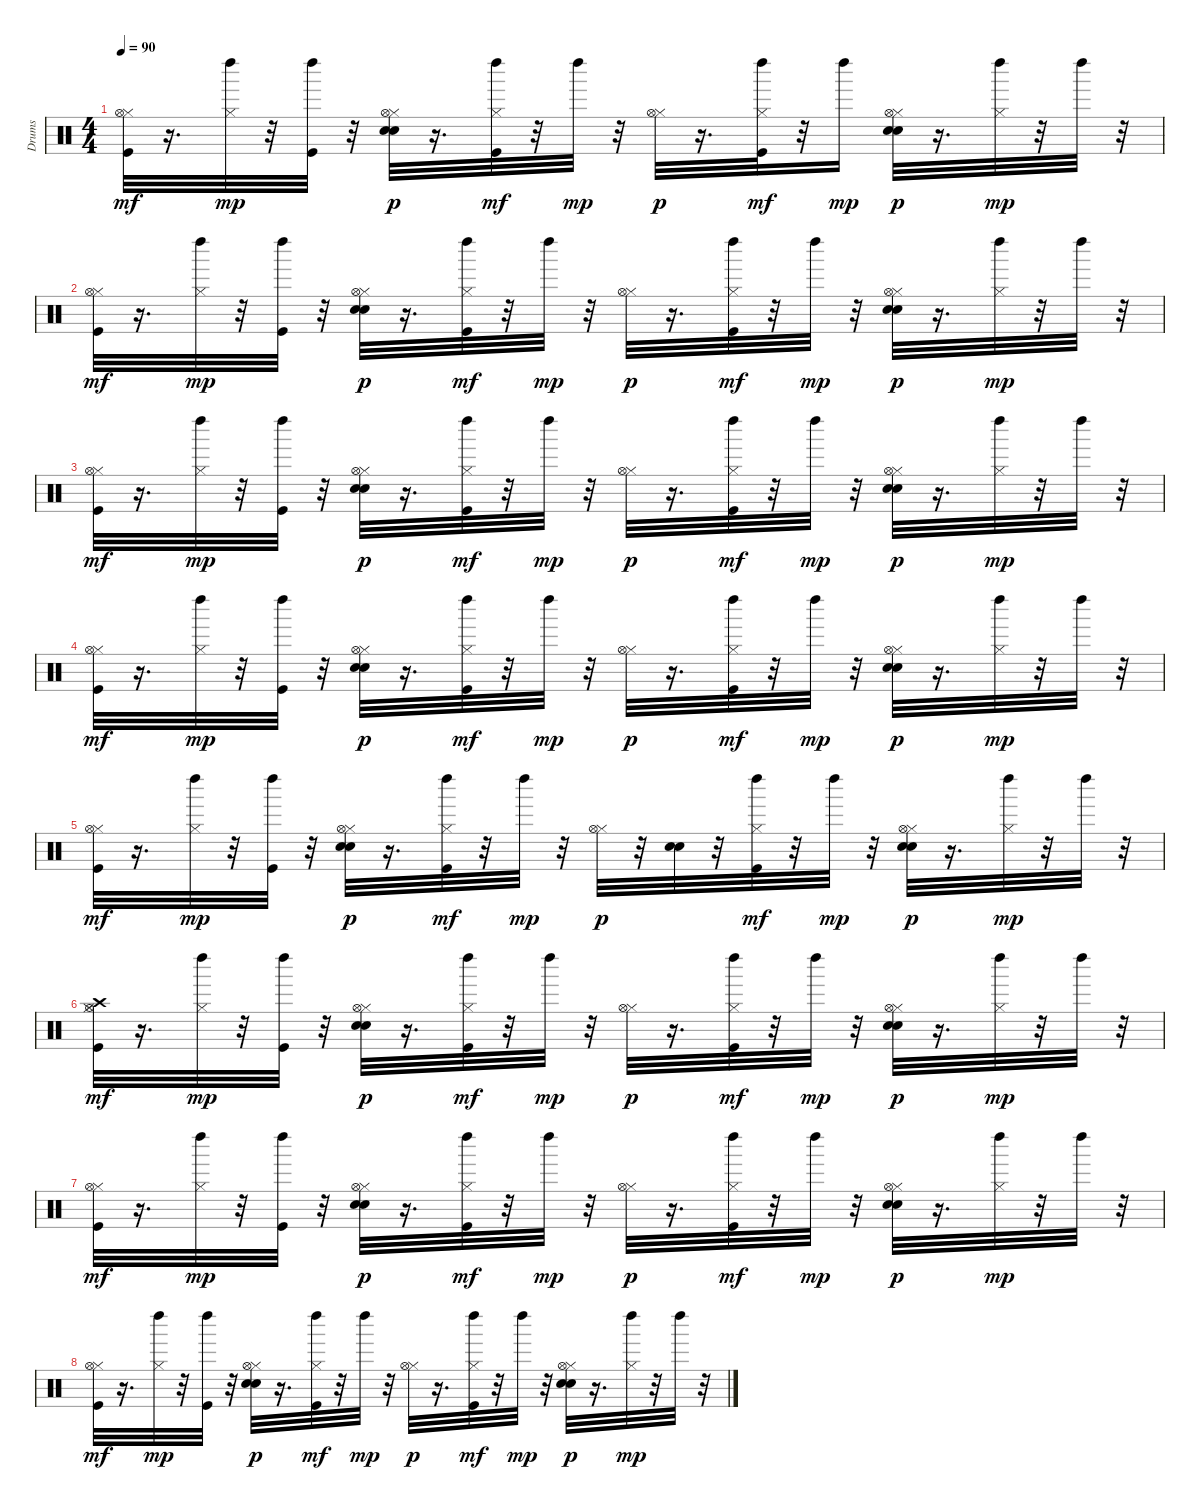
\track ("Drums" "Drums") {instrument percussion}
\staff {score}
\articulation defaults
\ts (4 4)
\tempo 90
\clef neutral
\ks c
("Hi-Hat (closed)" "Hi-Hat (open)" "Kick (hit)").32{dy mf} r.16{d} ("Hi-Hat (closed)" "Left Maraca (hit)").32{dy mp} r.32 ("Kick (hit)" "Left Maraca (hit)").32 r.32 ("Snare (hit) 2" "Electric Snare (hit)" "Hi-Hat (closed)" "Hi-Hat (open)").32{dy p} r.16{d} ("Hi-Hat (closed)" "Left Maraca (hit)" "Kick (hit)").32{dy mf} r.32 "Left Maraca (hit)".32{dy mp} r.32 ("Hi-Hat (closed)" "Hi-Hat (open)").32{dy p} r.16{d} ("Hi-Hat (closed)" "Left Maraca (hit)" "Kick (hit)").32{dy mf} r.32 "Left Maraca (hit)".16{dy mp} ("Snare (hit) 2" "Electric Snare (hit)" "Hi-Hat (closed)" "Hi-Hat (open)").32{dy p} r.16{d} ("Hi-Hat (closed)" "Left Maraca (hit)").32{dy mp} r.32 "Left Maraca (hit)".32 r.32 |
("Hi-Hat (closed)" "Hi-Hat (open)" "Kick (hit)").32{dy mf} r.16{d} ("Hi-Hat (closed)" "Left Maraca (hit)").32{dy mp} r.32 ("Kick (hit)" "Left Maraca (hit)").32 r.32 ("Snare (hit) 2" "Electric Snare (hit)" "Hi-Hat (closed)" "Hi-Hat (open)").32{dy p} r.16{d} ("Hi-Hat (closed)" "Left Maraca (hit)" "Kick (hit)").32{dy mf} r.32 "Left Maraca (hit)".32{dy mp} r.32 ("Hi-Hat (closed)" "Hi-Hat (open)").32{dy p} r.16{d} ("Hi-Hat (closed)" "Left Maraca (hit)" "Kick (hit)").32{dy mf} r.32 "Left Maraca (hit)".32{dy mp} r.32 ("Snare (hit) 2" "Electric Snare (hit)" "Hi-Hat (closed)" "Hi-Hat (open)").32{dy p} r.16{d} ("Hi-Hat (closed)" "Left Maraca (hit)").32{dy mp} r.32 "Left Maraca (hit)".32 r.32 |
("Hi-Hat (closed)" "Hi-Hat (open)" "Kick (hit)").32{dy mf} r.16{d} ("Hi-Hat (closed)" "Left Maraca (hit)").32{dy mp} r.32 ("Kick (hit)" "Left Maraca (hit)").32 r.32 ("Snare (hit) 2" "Electric Snare (hit)" "Hi-Hat (closed)" "Hi-Hat (open)").32{dy p} r.16{d} ("Hi-Hat (closed)" "Left Maraca (hit)" "Kick (hit)").32{dy mf} r.32 "Left Maraca (hit)".32{dy mp} r.32 ("Hi-Hat (closed)" "Hi-Hat (open)").32{dy p} r.16{d} ("Hi-Hat (closed)" "Left Maraca (hit)" "Kick (hit)").32{dy mf} r.32 "Left Maraca (hit)".32{dy mp} r.32 ("Snare (hit) 2" "Electric Snare (hit)" "Hi-Hat (closed)" "Hi-Hat (open)").32{dy p} r.16{d} ("Hi-Hat (closed)" "Left Maraca (hit)").32{dy mp} r.32 "Left Maraca (hit)".32 r.32 |
("Hi-Hat (closed)" "Hi-Hat (open)" "Kick (hit)").32{dy mf} r.16{d} ("Hi-Hat (closed)" "Left Maraca (hit)").32{dy mp} r.32 ("Kick (hit)" "Left Maraca (hit)").32 r.32 ("Snare (hit) 2" "Electric Snare (hit)" "Hi-Hat (closed)" "Hi-Hat (open)").32{dy p} r.16{d} ("Hi-Hat (closed)" "Left Maraca (hit)" "Kick (hit)").32{dy mf} r.32 "Left Maraca (hit)".32{dy mp} r.32 ("Hi-Hat (closed)" "Hi-Hat (open)").32{dy p} r.16{d} ("Hi-Hat (closed)" "Left Maraca (hit)" "Kick (hit)").32{dy mf} r.32 "Left Maraca (hit)".32{dy mp} r.32 ("Snare (hit) 2" "Electric Snare (hit)" "Hi-Hat (closed)" "Hi-Hat (open)").32{dy p} r.16{d} ("Hi-Hat (closed)" "Left Maraca (hit)").32{dy mp} r.32 "Left Maraca (hit)".32 r.32 |
("Hi-Hat (closed)" "Hi-Hat (open)" "Kick (hit)").32{dy mf} r.16{d} ("Hi-Hat (closed)" "Left Maraca (hit)").32{dy mp} r.32 ("Kick (hit)" "Left Maraca (hit)").32 r.32 ("Snare (hit) 2" "Electric Snare (hit)" "Hi-Hat (closed)" "Hi-Hat (open)").32{dy p} r.16{d} ("Hi-Hat (closed)" "Left Maraca (hit)" "Kick (hit)").32{dy mf} r.32 "Left Maraca (hit)".32{dy mp} r.32 ("Hi-Hat (closed)" "Hi-Hat (open)").32{dy p} r.32 ("Electric Snare (hit)" "Snare (hit) 2").32 r.32 ("Hi-Hat (closed)" "Left Maraca (hit)" "Kick (hit)").32{dy mf} r.32 "Left Maraca (hit)".32{dy mp} r.32 ("Snare (hit) 2" "Electric Snare (hit)" "Hi-Hat (closed)" "Hi-Hat (open)").32{dy p} r.16{d} ("Hi-Hat (closed)" "Left Maraca (hit)").32{dy mp} r.32 "Left Maraca (hit)".32 r.32 |
("Crash high (hit)" "Hi-Hat (closed)" "Hi-Hat (open)" "Kick (hit)").32{dy mf} r.16{d} ("Hi-Hat (closed)" "Left Maraca (hit)").32{dy mp} r.32 ("Kick (hit)" "Left Maraca (hit)").32 r.32 ("Snare (hit) 2" "Electric Snare (hit)" "Hi-Hat (closed)" "Hi-Hat (open)").32{dy p} r.16{d} ("Hi-Hat (closed)" "Left Maraca (hit)" "Kick (hit)").32{dy mf} r.32 "Left Maraca (hit)".32{dy mp} r.32 ("Hi-Hat (closed)" "Hi-Hat (open)").32{dy p} r.16{d} ("Hi-Hat (closed)" "Left Maraca (hit)" "Kick (hit)").32{dy mf} r.32 "Left Maraca (hit)".32{dy mp} r.32 ("Snare (hit) 2" "Electric Snare (hit)" "Hi-Hat (closed)" "Hi-Hat (open)").32{dy p} r.16{d} ("Hi-Hat (closed)" "Left Maraca (hit)").32{dy mp} r.32 "Left Maraca (hit)".32 r.32 |
("Hi-Hat (closed)" "Hi-Hat (open)" "Kick (hit)").32{dy mf} r.16{d} ("Hi-Hat (closed)" "Left Maraca (hit)").32{dy mp} r.32 ("Kick (hit)" "Left Maraca (hit)").32 r.32 ("Snare (hit) 2" "Electric Snare (hit)" "Hi-Hat (closed)" "Hi-Hat (open)").32{dy p} r.16{d} ("Hi-Hat (closed)" "Left Maraca (hit)" "Kick (hit)").32{dy mf} r.32 "Left Maraca (hit)".32{dy mp} r.32 ("Hi-Hat (closed)" "Hi-Hat (open)").32{dy p} r.16{d} ("Hi-Hat (closed)" "Left Maraca (hit)" "Kick (hit)").32{dy mf} r.32 "Left Maraca (hit)".32{dy mp} r.32 ("Snare (hit) 2" "Electric Snare (hit)" "Hi-Hat (closed)" "Hi-Hat (open)").32{dy p} r.16{d} ("Hi-Hat (closed)" "Left Maraca (hit)").32{dy mp} r.32 "Left Maraca (hit)".32 r.32 |
("Hi-Hat (closed)" "Hi-Hat (open)" "Kick (hit)").32{dy mf} r.16{d} ("Hi-Hat (closed)" "Left Maraca (hit)").32{dy mp} r.32 ("Kick (hit)" "Left Maraca (hit)").32 r.32 ("Snare (hit) 2" "Electric Snare (hit)" "Hi-Hat (closed)" "Hi-Hat (open)").32{dy p} r.16{d} ("Hi-Hat (closed)" "Left Maraca (hit)" "Kick (hit)").32{dy mf} r.32 "Left Maraca (hit)".32{dy mp} r.32 ("Hi-Hat (closed)" "Hi-Hat (open)").32{dy p} r.16{d} ("Hi-Hat (closed)" "Left Maraca (hit)" "Kick (hit)").32{dy mf} r.32 "Left Maraca (hit)".32{dy mp} r.32 ("Snare (hit) 2" "Electric Snare (hit)" "Hi-Hat (closed)" "Hi-Hat (open)").32{dy p} r.16{d} ("Hi-Hat (closed)" "Left Maraca (hit)").32{dy mp} r.32 "Left Maraca (hit)".32 r.32
